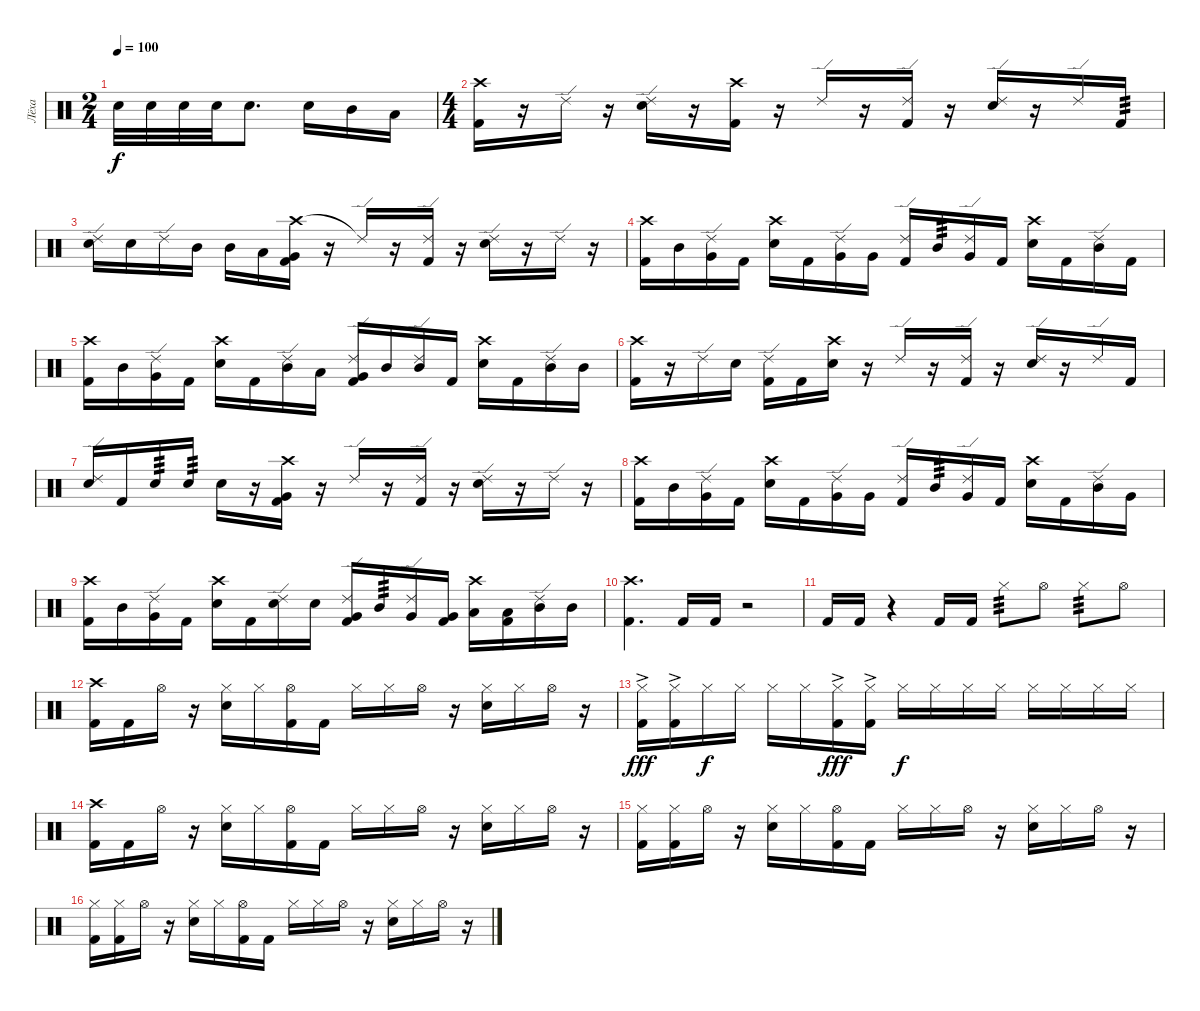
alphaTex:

\track ("Лёха" "Лёха") {instrument percussion}
\staff {score}
\articulation defaults
\ts (2 4)
\tempo 100
\clef neutral
\ks c "Electric Snare (hit)".32{dy f} "Electric Snare (hit)".32 "Electric Snare (hit)".32 "Electric Snare (hit)".32 "Electric Snare (hit)".8{d} "Electric Snare (hit)".16 "Mid Tom (hit)".16 "Low Floor Tom (hit)".16
|
\ts (4 4)
("Crash high (hit)" "Kick (hit) 2").16 r.16 "Ride (edge) 2".16 r.16 ("Ride (edge) 2" "Electric Snare (hit)").16 r.16 ("Crash high (hit)" "Kick (hit) 2").16 r.16 "Ride (edge) 2".16 r.16 ("Ride (edge) 2" "Kick (hit) 2").16 r.16 ("Ride (edge) 2" "Electric Snare (hit)").16 r.16 "Ride (edge) 2".16 "Kick (hit) 2".16{tp 3} |
("Ride (edge) 2" "Electric Snare (hit)").16 "Electric Snare (hit)".16 "Ride (edge) 2".16 "Mid Tom (hit)".16 "Mid Tom (hit)".16 "Low Tom (hit)".16 ("Crash high (hit)" "Very Low Tom (hit)" "Kick (hit) 2").16 r.16 "Ride (edge) 2"{t}.16 r.16 ("Ride (edge) 2" "Kick (hit) 2").16 r.16 ("Ride (edge) 2" "Electric Snare (hit)").16 r.16 "Ride (edge) 2".16 r.16 |
("Crash high (hit)" "Kick (hit) 2").16 "Mid Tom (hit)".16 ("Ride (edge) 2" "Very Low Tom (hit)").16 "Kick (hit) 2".16 ("Crash high (hit)" "Electric Snare (hit)").16 "Kick (hit) 2".16 ("Ride (edge) 2" "Very Low Tom (hit)").16 "Very Low Tom (hit)".16 ("Ride (edge) 2" "Kick (hit) 2").16 "Mid Tom (hit)".16{tp 3} ("Ride (edge) 2" "Very Low Tom (hit)").16 "Kick (hit) 2".16 ("Crash high (hit)" "Electric Snare (hit)").16 "Kick (hit) 2".16 ("Ride (edge) 2" "Mid Tom (hit)").16 "Kick (hit) 2".16 |
("Crash high (hit)" "Kick (hit) 2").16 "Mid Tom (hit)".16 ("Ride (edge) 2" "Very Low Tom (hit)").16 "Kick (hit) 2".16 ("Crash high (hit)" "Electric Snare (hit)").16 "Kick (hit) 2".16 ("Ride (edge) 2" "Mid Tom (hit)").16 "Low Tom (hit)".16 ("Ride (edge) 2" "Very Low Tom (hit)" "Kick (hit) 2").16 "Mid Tom (hit)".16 ("Ride (edge) 2" "Mid Tom (hit)").16 "Kick (hit) 2".16 ("Crash high (hit)" "Electric Snare (hit)").16 "Kick (hit) 2".16 ("Ride (edge) 2" "Mid Tom (hit)").16 "Mid Tom (hit)".16 |
("Crash high (hit)" "Kick (hit) 2").16 r.16 "Ride (edge) 2".16 "Electric Snare (hit)".16 ("Ride (edge) 2" "Kick (hit) 2").16 "Kick (hit) 2".16 ("Crash high (hit)" "Electric Snare (hit)").16 r.16 "Ride (edge) 2".16 r.16 ("Ride (edge) 2" "Kick (hit) 2").16 r.16 ("Ride (edge) 2" "Electric Snare (hit)").16 r.16 "Ride (edge) 2".16 "Kick (hit) 2".16 |
("Ride (edge) 2" "Electric Snare (hit)").16 "Kick (hit) 2".16 "Electric Snare (hit)".16{tp 3} "Electric Snare (hit)".16{tp 3} "Electric Snare (hit)".16 r.16 ("Crash high (hit)" "Very Low Tom (hit)" "Kick (hit) 2").16 r.16 "Ride (edge) 2".16 r.16 ("Ride (edge) 2" "Kick (hit) 2").16 r.16 ("Ride (edge) 2" "Electric Snare (hit)").16 r.16 "Ride (edge) 2".16 r.16 |
("Crash high (hit)" "Kick (hit) 2").16 "Mid Tom (hit)".16 ("Ride (edge) 2" "Very Low Tom (hit)").16 "Kick (hit) 2".16 ("Crash high (hit)" "Electric Snare (hit)").16 "Kick (hit) 2".16 ("Ride (edge) 2" "Very Low Tom (hit)").16 "Very Low Tom (hit)".16 ("Ride (edge) 2" "Kick (hit) 2").16 "Mid Tom (hit)".16{tp 3} ("Ride (edge) 2" "Very Low Tom (hit)").16 "Kick (hit) 2".16 ("Crash high (hit)" "Electric Snare (hit)").16 "Kick (hit) 2".16 ("Ride (edge) 2" "Mid Tom (hit)").16 "Very Low Tom (hit)".16 |
("Crash high (hit)" "Kick (hit) 2").16 "Mid Tom (hit)".16 ("Ride (edge) 2" "Very Low Tom (hit)").16 "Kick (hit) 2".16 ("Crash high (hit)" "Electric Snare (hit)").16 "Kick (hit) 2".16 ("Ride (edge) 2" "Electric Snare (hit)").16 "Electric Snare (hit)".16 ("Ride (edge) 2" "Very Low Tom (hit)" "Kick (hit) 2").16 "Mid Tom (hit)".16{tp 3} ("Ride (edge) 2" "Very Low Tom (hit)").16 ("Very Low Tom (hit)" "Kick (hit) 2").16 ("Crash high (hit)" "Low Tom (hit)").16 ("Low Tom (hit)" "Kick (hit) 2").16 ("Ride (edge) 2" "Mid Tom (hit)").16 "Mid Tom (hit)".16 |
("Crash high (hit)" "Kick (hit) 2").4{d} "Kick (hit) 2".16 "Kick (hit) 2".16 r.2 |
"Kick (hit) 2".16 "Kick (hit) 2".16 r.4 "Kick (hit) 2".16 "Kick (hit) 2".16 "Hi-Hat (closed)".8{tp 3} "Hi-Hat (open)".8 "Hi-Hat (closed)".8{tp 3} "Hi-Hat (open)".8 |
("Crash high (hit)" "Kick (hit) 2").16 "Kick (hit) 2".16 "Hi-Hat (open)".16 r.16 ("Hi-Hat (closed)" "Electric Snare (hit)").16 "Hi-Hat (closed)".16 ("Hi-Hat (open)" "Kick (hit) 2").16 "Kick (hit) 2".16 "Hi-Hat (closed)".16 "Hi-Hat (closed)".16 "Hi-Hat (open)".16 r.16 ("Hi-Hat (closed)" "Electric Snare (hit)").16 "Hi-Hat (closed)".16 "Hi-Hat (open)".16 r.16 |
("Hi-Hat (closed)"{ac} "Kick (hit) 2").16{dy fff} ("Hi-Hat (closed)"{ac} "Kick (hit) 2").16 "Hi-Hat (closed)".16{dy f} "Hi-Hat (closed)".16 "Hi-Hat (closed)".16 "Hi-Hat (closed)".16 ("Hi-Hat (closed)"{ac} "Kick (hit) 2").16{dy fff} ("Hi-Hat (closed)"{ac} "Kick (hit) 2").16 "Hi-Hat (closed)".16{dy f} "Hi-Hat (closed)".16 "Hi-Hat (closed)".16 "Hi-Hat (closed)".16 "Hi-Hat (closed)".16 "Hi-Hat (closed)".16 "Hi-Hat (closed)".16 "Hi-Hat (closed)".16 |
("Crash high (hit)" "Kick (hit) 2").16 "Kick (hit) 2".16 "Hi-Hat (open)".16 r.16 ("Hi-Hat (closed)" "Electric Snare (hit)").16 "Hi-Hat (closed)".16 ("Hi-Hat (open)" "Kick (hit) 2").16 "Kick (hit) 2".16 "Hi-Hat (closed)".16 "Hi-Hat (closed)".16 "Hi-Hat (open)".16 r.16 ("Hi-Hat (closed)" "Electric Snare (hit)").16 "Hi-Hat (closed)".16 "Hi-Hat (open)".16 r.16 |
("Hi-Hat (closed)" "Kick (hit) 2").16 ("Hi-Hat (closed)" "Kick (hit) 2").16 "Hi-Hat (open)".16 r.16 ("Hi-Hat (closed)" "Electric Snare (hit)").16 "Hi-Hat (closed)".16 ("Hi-Hat (open)" "Kick (hit) 2").16 "Kick (hit) 2".16 "Hi-Hat (closed)".16 "Hi-Hat (closed)".16 "Hi-Hat (open)".16 r.16 ("Hi-Hat (closed)" "Electric Snare (hit)").16 "Hi-Hat (closed)".16 "Hi-Hat (open)".16 r.16 |
("Hi-Hat (closed)" "Kick (hit) 2").16 ("Hi-Hat (closed)" "Kick (hit) 2").16 "Hi-Hat (open)".16 r.16 ("Hi-Hat (closed)" "Electric Snare (hit)").16 "Hi-Hat (closed)".16 ("Hi-Hat (open)" "Kick (hit) 2").16 "Kick (hit) 2".16 "Hi-Hat (closed)".16 "Hi-Hat (closed)".16 "Hi-Hat (open)".16 r.16 ("Hi-Hat (closed)" "Electric Snare (hit)").16 "Hi-Hat (closed)".16 "Hi-Hat (open)".16 r.16
